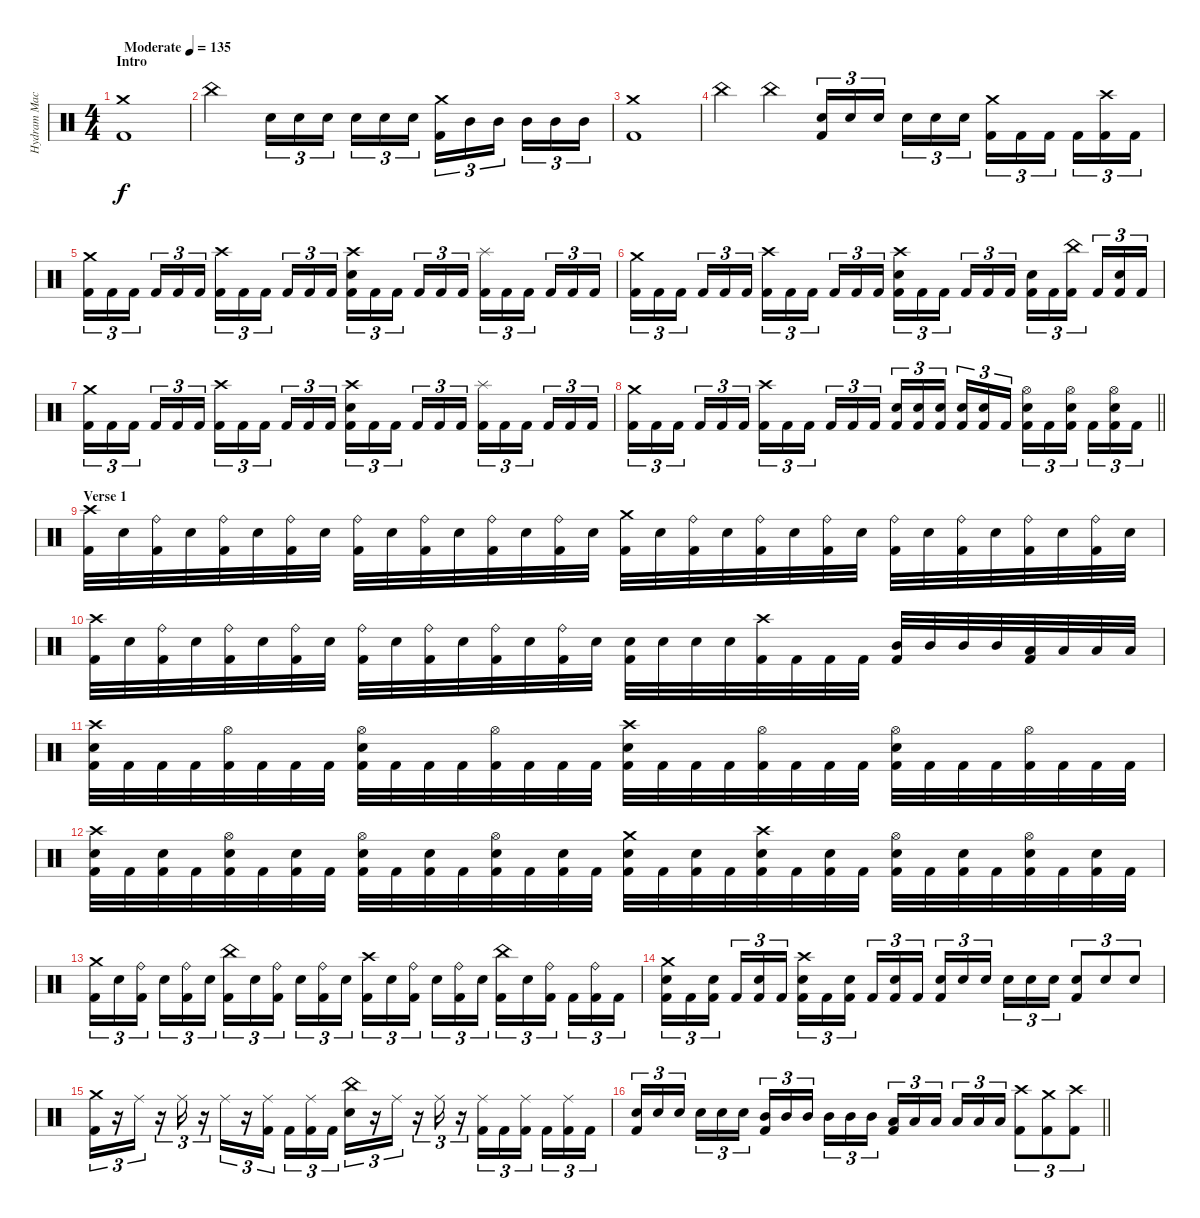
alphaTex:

\track ("Hydram Machine" "Hydram Mac") {instrument percussion}
\staff {score}
\articulation defaults
\ts (4 4)
\section ("" "Intro")
\tempo (135 "Moderate")
\clef neutral
\ks c
("Crash medium (hit)" "Kick (hit) 2").1{dy f} |
"China (hit)".2 "Electric Snare (hit)".16{tu (3 2)} "Electric Snare (hit)".16{tu (3 2)} "Electric Snare (hit)".16{tu (3 2) beam splitsecondary} "Electric Snare (hit)".16{tu (3 2)} "Electric Snare (hit)".16{tu (3 2)} "Electric Snare (hit)".16{tu (3 2)} ("Crash medium (hit)" "Kick (hit) 2").16{tu (3 2)} "Mid Tom (hit)".16{tu (3 2)} "Mid Tom (hit)".16{tu (3 2) beam splitsecondary} "Mid Tom (hit)".16{tu (3 2)} "Mid Tom (hit)".16{tu (3 2)} "Mid Tom (hit)".16{tu (3 2)} |
("Crash medium (hit)" "Kick (hit) 2").1 |
"China (hit)".4 "China (hit)".4 ("Electric Snare (hit)" "Kick (hit) 2").16{tu (3 2)} "Electric Snare (hit)".16{tu (3 2)} "Electric Snare (hit)".16{tu (3 2) beam splitsecondary} "Electric Snare (hit)".16{tu (3 2)} "Electric Snare (hit)".16{tu (3 2)} "Electric Snare (hit)".16{tu (3 2)} ("Crash medium (hit)" "Kick (hit) 2").16{tu (3 2)} "Kick (hit) 2".16{tu (3 2)} "Kick (hit) 2".16{tu (3 2) beam splitsecondary} "Kick (hit) 2".16{tu (3 2)} ("Crash high (hit)" "Kick (hit) 2").16{tu (3 2)} "Kick (hit) 2".16{tu (3 2)} |
("Crash medium (hit)" "Kick (hit) 2").16{tu (3 2)} "Kick (hit) 2".16{tu (3 2)} "Kick (hit) 2".16{tu (3 2) beam splitsecondary} "Kick (hit) 2".16{tu (3 2)} "Kick (hit) 2".16{tu (3 2)} "Kick (hit) 2".16{tu (3 2)} ("Crash high (hit)" "Kick (hit) 2").16{tu (3 2)} "Kick (hit) 2".16{tu (3 2)} "Kick (hit) 2".16{tu (3 2) beam splitsecondary} "Kick (hit) 2".16{tu (3 2)} "Kick (hit) 2".16{tu (3 2)} "Kick (hit) 2".16{tu (3 2)} ("Crash high (hit)" "Electric Snare (hit)" "Kick (hit) 2").16{tu (3 2)} "Kick (hit) 2".16{tu (3 2)} "Kick (hit) 2".16{tu (3 2) beam splitsecondary} "Kick (hit) 2".16{tu (3 2)} "Kick (hit) 2".16{tu (3 2)} "Kick (hit) 2".16{tu (3 2)} ("Splash (hit)" "Kick (hit) 2").16{tu (3 2)} "Kick (hit) 2".16{tu (3 2)} "Kick (hit) 2".16{tu (3 2) beam splitsecondary} "Kick (hit) 2".16{tu (3 2)} "Kick (hit) 2".16{tu (3 2)} "Kick (hit) 2".16{tu (3 2)} |
("Crash medium (hit)" "Kick (hit) 2").16{tu (3 2)} "Kick (hit) 2".16{tu (3 2)} "Kick (hit) 2".16{tu (3 2) beam splitsecondary} "Kick (hit) 2".16{tu (3 2)} "Kick (hit) 2".16{tu (3 2)} "Kick (hit) 2".16{tu (3 2)} ("Crash high (hit)" "Kick (hit) 2").16{tu (3 2)} "Kick (hit) 2".16{tu (3 2)} "Kick (hit) 2".16{tu (3 2) beam splitsecondary} "Kick (hit) 2".16{tu (3 2)} "Kick (hit) 2".16{tu (3 2)} "Kick (hit) 2".16{tu (3 2)} ("Crash high (hit)" "Electric Snare (hit)" "Kick (hit) 2").16{tu (3 2)} "Kick (hit) 2".16{tu (3 2)} "Kick (hit) 2".16{tu (3 2) beam splitsecondary} "Kick (hit) 2".16{tu (3 2)} "Kick (hit) 2".16{tu (3 2)} "Kick (hit) 2".16{tu (3 2)} ("Electric Snare (hit)" "Kick (hit) 2").16{tu (3 2)} "Kick (hit) 2".16{tu (3 2)} ("China (hit)" "Kick (hit) 2").16{tu (3 2) beam splitsecondary} "Kick (hit) 2".16{tu (3 2)} ("Electric Snare (hit)" "Kick (hit) 2").16{tu (3 2)} "Kick (hit) 2".16{tu (3 2)} |
("Crash medium (hit)" "Kick (hit) 2").16{tu (3 2)} "Kick (hit) 2".16{tu (3 2)} "Kick (hit) 2".16{tu (3 2) beam splitsecondary} "Kick (hit) 2".16{tu (3 2)} "Kick (hit) 2".16{tu (3 2)} "Kick (hit) 2".16{tu (3 2)} ("Crash high (hit)" "Kick (hit) 2").16{tu (3 2)} "Kick (hit) 2".16{tu (3 2)} "Kick (hit) 2".16{tu (3 2) beam splitsecondary} "Kick (hit) 2".16{tu (3 2)} "Kick (hit) 2".16{tu (3 2)} "Kick (hit) 2".16{tu (3 2)} ("Crash high (hit)" "Electric Snare (hit)" "Kick (hit) 2").16{tu (3 2)} "Kick (hit) 2".16{tu (3 2)} "Kick (hit) 2".16{tu (3 2) beam splitsecondary} "Kick (hit) 2".16{tu (3 2)} "Kick (hit) 2".16{tu (3 2)} "Kick (hit) 2".16{tu (3 2)} ("Splash (hit)" "Kick (hit) 2").16{tu (3 2)} "Kick (hit) 2".16{tu (3 2)} "Kick (hit) 2".16{tu (3 2) beam splitsecondary} "Kick (hit) 2".16{tu (3 2)} "Kick (hit) 2".16{tu (3 2)} "Kick (hit) 2".16{tu (3 2)} |
\barLineRight lightlight
("Crash medium (hit)" "Kick (hit) 2").16{tu (3 2)} "Kick (hit) 2".16{tu (3 2)} "Kick (hit) 2".16{tu (3 2) beam splitsecondary} "Kick (hit) 2".16{tu (3 2)} "Kick (hit) 2".16{tu (3 2)} "Kick (hit) 2".16{tu (3 2)} ("Crash high (hit)" "Kick (hit) 2").16{tu (3 2)} "Kick (hit) 2".16{tu (3 2)} "Kick (hit) 2".16{tu (3 2) beam splitsecondary} "Kick (hit) 2".16{tu (3 2)} "Kick (hit) 2".16{tu (3 2)} "Kick (hit) 2".16{tu (3 2)} ("Electric Snare (hit)" "Kick (hit) 2").16{tu (3 2)} ("Electric Snare (hit)" "Kick (hit) 2").16{tu (3 2)} ("Electric Snare (hit)" "Kick (hit) 2").16{tu (3 2) beam splitsecondary} ("Electric Snare (hit)" "Kick (hit) 2").16{tu (3 2)} ("Electric Snare (hit)" "Kick (hit) 2").16{tu (3 2)} "Kick (hit) 2".16{tu (3 2)} ("Hi-Hat (open)" "Electric Snare (hit)" "Kick (hit) 2").16{tu (3 2)} "Kick (hit) 2".16{tu (3 2)} ("Hi-Hat (open)" "Electric Snare (hit)" "Kick (hit) 2").16{tu (3 2) beam splitsecondary} "Kick (hit) 2".16{tu (3 2)} ("Hi-Hat (open)" "Electric Snare (hit)" "Kick (hit) 2").16{tu (3 2)} "Kick (hit) 2".16{tu (3 2)} |
\section ("" "Verse 1")
("Crash high (hit)" "Kick (hit) 2").32 "Electric Snare (hit)".32 ("Ride (bell)" "Kick (hit) 2").32 "Electric Snare (hit)".32 ("Ride (bell)" "Kick (hit) 2").32 "Electric Snare (hit)".32 ("Ride (bell)" "Kick (hit) 2").32 "Electric Snare (hit)".32 ("Ride (bell)" "Kick (hit) 2").32 "Electric Snare (hit)".32 ("Ride (bell)" "Kick (hit) 2").32 "Electric Snare (hit)".32 ("Ride (bell)" "Kick (hit) 2").32 "Electric Snare (hit)".32 ("Ride (bell)" "Kick (hit) 2").32 "Electric Snare (hit)".32 ("Crash medium (hit)" "Kick (hit) 2").32 "Electric Snare (hit)".32 ("Ride (bell)" "Kick (hit) 2").32 "Electric Snare (hit)".32 ("Ride (bell)" "Kick (hit) 2").32 "Electric Snare (hit)".32 ("Ride (bell)" "Kick (hit) 2").32 "Electric Snare (hit)".32 ("Ride (bell)" "Kick (hit) 2").32 "Electric Snare (hit)".32 ("Ride (bell)" "Kick (hit) 2").32 "Electric Snare (hit)".32 ("Ride (bell)" "Kick (hit) 2").32 "Electric Snare (hit)".32 ("Ride (bell)" "Kick (hit) 2").32 "Electric Snare (hit)".32 |
("Crash high (hit)" "Kick (hit) 2").32 "Electric Snare (hit)".32 ("Ride (bell)" "Kick (hit) 2").32 "Electric Snare (hit)".32 ("Ride (bell)" "Kick (hit) 2").32 "Electric Snare (hit)".32 ("Ride (bell)" "Kick (hit) 2").32 "Electric Snare (hit)".32 ("Ride (bell)" "Kick (hit) 2").32 "Electric Snare (hit)".32 ("Ride (bell)" "Kick (hit) 2").32 "Electric Snare (hit)".32 ("Ride (bell)" "Kick (hit) 2").32 "Electric Snare (hit)".32 ("Ride (bell)" "Kick (hit) 2").32 "Electric Snare (hit)".32 ("Electric Snare (hit)" "Kick (hit) 2").32 "Electric Snare (hit)".32 "Electric Snare (hit)".32 "Electric Snare (hit)".32 ("Crash high (hit)" "Kick (hit) 2").32 "Kick (hit) 2".32 "Kick (hit) 2".32 "Kick (hit) 2".32 ("Mid Tom (hit)" "Kick (hit) 2").32 "Mid Tom (hit)".32 "Mid Tom (hit)".32 "Mid Tom (hit)".32 ("Low Tom (hit)" "Kick (hit) 2").32 "Low Tom (hit)".32 "Low Tom (hit)".32 "Low Tom (hit)".32 |
("Crash high (hit)" "Electric Snare (hit)" "Kick (hit) 2").32 "Kick (hit) 2".32 "Kick (hit) 2".32 "Kick (hit) 2".32 ("Hi-Hat (open)" "Kick (hit) 2").32 "Kick (hit) 2".32 "Kick (hit) 2".32 "Kick (hit) 2".32 ("Hi-Hat (open)" "Electric Snare (hit)" "Kick (hit) 2").32 "Kick (hit) 2".32 "Kick (hit) 2".32 "Kick (hit) 2".32 ("Hi-Hat (open)" "Kick (hit) 2").32 "Kick (hit) 2".32 "Kick (hit) 2".32 "Kick (hit) 2".32 ("Crash high (hit)" "Electric Snare (hit)" "Kick (hit) 2").32 "Kick (hit) 2".32 "Kick (hit) 2".32 "Kick (hit) 2".32 ("Hi-Hat (open)" "Kick (hit) 2").32 "Kick (hit) 2".32 "Kick (hit) 2".32 "Kick (hit) 2".32 ("Hi-Hat (open)" "Electric Snare (hit)" "Kick (hit) 2").32 "Kick (hit) 2".32 "Kick (hit) 2".32 "Kick (hit) 2".32 ("Hi-Hat (open)" "Kick (hit) 2").32 "Kick (hit) 2".32 "Kick (hit) 2".32 "Kick (hit) 2".32 |
("Crash high (hit)" "Electric Snare (hit)" "Kick (hit) 2").32 "Kick (hit) 2".32 ("Electric Snare (hit)" "Kick (hit) 2").32 "Kick (hit) 2".32 ("Hi-Hat (open)" "Electric Snare (hit)" "Kick (hit) 2").32 "Kick (hit) 2".32 ("Electric Snare (hit)" "Kick (hit) 2").32 "Kick (hit) 2".32 ("Hi-Hat (open)" "Electric Snare (hit)" "Kick (hit) 2").32 "Kick (hit) 2".32 ("Electric Snare (hit)" "Kick (hit) 2").32 "Kick (hit) 2".32 ("Hi-Hat (open)" "Electric Snare (hit)" "Kick (hit) 2").32 "Kick (hit) 2".32 ("Electric Snare (hit)" "Kick (hit) 2").32 "Kick (hit) 2".32 ("Crash medium (hit)" "Electric Snare (hit)" "Kick (hit) 2").32 "Kick (hit) 2".32 ("Electric Snare (hit)" "Kick (hit) 2").32 "Kick (hit) 2".32 ("Crash high (hit)" "Electric Snare (hit)" "Kick (hit) 2").32 "Kick (hit) 2".32 ("Electric Snare (hit)" "Kick (hit) 2").32 "Kick (hit) 2".32 ("Hi-Hat (open)" "Electric Snare (hit)" "Kick (hit) 2").32 "Kick (hit) 2".32 ("Electric Snare (hit)" "Kick (hit) 2").32 "Kick (hit) 2".32 ("Hi-Hat (open)" "Electric Snare (hit)" "Kick (hit) 2").32 "Kick (hit) 2".32 ("Electric Snare (hit)" "Kick (hit) 2").32 "Kick (hit) 2".32 |
("Crash medium (hit)" "Kick (hit) 2").16{tu (3 2)} "Electric Snare (hit)".16{tu (3 2)} ("Ride (bell)" "Kick (hit) 2").16{tu (3 2) beam splitsecondary} "Electric Snare (hit)".16{tu (3 2)} ("Ride (bell)" "Kick (hit) 2").16{tu (3 2)} "Electric Snare (hit)".16{tu (3 2)} ("China (hit)" "Kick (hit) 2").16{tu (3 2)} "Electric Snare (hit)".16{tu (3 2)} ("Ride (bell)" "Kick (hit) 2").16{tu (3 2) beam splitsecondary} "Electric Snare (hit)".16{tu (3 2)} ("Ride (bell)" "Kick (hit) 2").16{tu (3 2)} "Electric Snare (hit)".16{tu (3 2)} ("Crash high (hit)" "Kick (hit) 2").16{tu (3 2)} "Electric Snare (hit)".16{tu (3 2)} ("Ride (bell)" "Kick (hit) 2").16{tu (3 2) beam splitsecondary} "Electric Snare (hit)".16{tu (3 2)} ("Ride (bell)" "Kick (hit) 2").16{tu (3 2)} "Electric Snare (hit)".16{tu (3 2)} ("China (hit)" "Kick (hit) 2").16{tu (3 2)} "Electric Snare (hit)".16{tu (3 2)} ("Ride (bell)" "Kick (hit) 2").16{tu (3 2) beam splitsecondary} "Kick (hit) 2".16{tu (3 2)} ("Ride (bell)" "Kick (hit) 2").16{tu (3 2)} "Kick (hit) 2".16{tu (3 2)} |
("Crash medium (hit)" "Electric Snare (hit)" "Kick (hit) 2").16{tu (3 2)} "Kick (hit) 2".16{tu (3 2)} ("Electric Snare (hit)" "Kick (hit) 2").16{tu (3 2) beam splitsecondary} "Kick (hit) 2".16{tu (3 2)} ("Electric Snare (hit)" "Kick (hit) 2").16{tu (3 2)} "Kick (hit) 2".16{tu (3 2)} ("Crash high (hit)" "Electric Snare (hit)" "Kick (hit) 2").16{tu (3 2)} "Kick (hit) 2".16{tu (3 2)} ("Electric Snare (hit)" "Kick (hit) 2").16{tu (3 2) beam splitsecondary} "Kick (hit) 2".16{tu (3 2)} ("Electric Snare (hit)" "Kick (hit) 2").16{tu (3 2)} "Kick (hit) 2".16{tu (3 2)} ("Electric Snare (hit)" "Kick (hit) 2").16{tu (3 2)} "Electric Snare (hit)".16{tu (3 2)} "Electric Snare (hit)".16{tu (3 2) beam splitsecondary} "Electric Snare (hit)".16{tu (3 2)} "Electric Snare (hit)".16{tu (3 2)} "Electric Snare (hit)".16{tu (3 2)} ("Electric Snare (hit)" "Kick (hit) 2").8{tu (3 2)} "Electric Snare (hit)".8{tu (3 2)} "Electric Snare (hit)".8{tu (3 2)} |
("Crash medium (hit)" "Kick (hit) 2").16{tu (3 2)} r.16{tu (3 2)} "Ride (middle)".16{tu (3 2)} r.16{tu (3 2)} "Ride (middle)".16{tu (3 2)} r.16{tu (3 2)} "Ride (middle)".16{tu (3 2)} r.16{tu (3 2)} ("Ride (middle)" "Kick (hit) 2").16{tu (3 2) beam splitsecondary} "Kick (hit) 2".16{tu (3 2)} ("Ride (middle)" "Kick (hit) 2").16{tu (3 2)} "Kick (hit) 2".16{tu (3 2)} ("China (hit)" "Electric Snare (hit)").16{tu (3 2)} r.16{tu (3 2)} "Ride (middle)".16{tu (3 2)} r.16{tu (3 2)} "Ride (middle)".16{tu (3 2)} r.16{tu (3 2)} ("Ride (middle)" "Kick (hit) 2").16{tu (3 2)} "Kick (hit) 2".16{tu (3 2)} ("Ride (middle)" "Kick (hit) 2").16{tu (3 2) beam splitsecondary} "Kick (hit) 2".16{tu (3 2)} ("Ride (middle)" "Kick (hit) 2").16{tu (3 2)} "Kick (hit) 2".16{tu (3 2)} |
\barLineRight lightlight
("Electric Snare (hit)" "Kick (hit) 2").16{tu (3 2)} "Electric Snare (hit)".16{tu (3 2)} "Electric Snare (hit)".16{tu (3 2) beam splitsecondary} "Electric Snare (hit)".16{tu (3 2)} "Electric Snare (hit)".16{tu (3 2)} "Electric Snare (hit)".16{tu (3 2)} ("Mid Tom (hit)" "Kick (hit) 2").16{tu (3 2)} "Mid Tom (hit)".16{tu (3 2)} "Mid Tom (hit)".16{tu (3 2) beam splitsecondary} "Mid Tom (hit)".16{tu (3 2)} "Mid Tom (hit)".16{tu (3 2)} "Mid Tom (hit)".16{tu (3 2)} ("Low Tom (hit)" "Kick (hit) 2").16{tu (3 2)} "Low Tom (hit)".16{tu (3 2)} "Low Tom (hit)".16{tu (3 2) beam splitsecondary} "Low Tom (hit)".16{tu (3 2)} "Low Tom (hit)".16{tu (3 2)} "Low Tom (hit)".16{tu (3 2)} ("Crash high (hit)" "Kick (hit) 2").8{tu (3 2)} ("Crash medium (hit)" "Kick (hit) 2").8{tu (3 2)} ("Crash high (hit)" "Kick (hit) 2").8{tu (3 2)}
